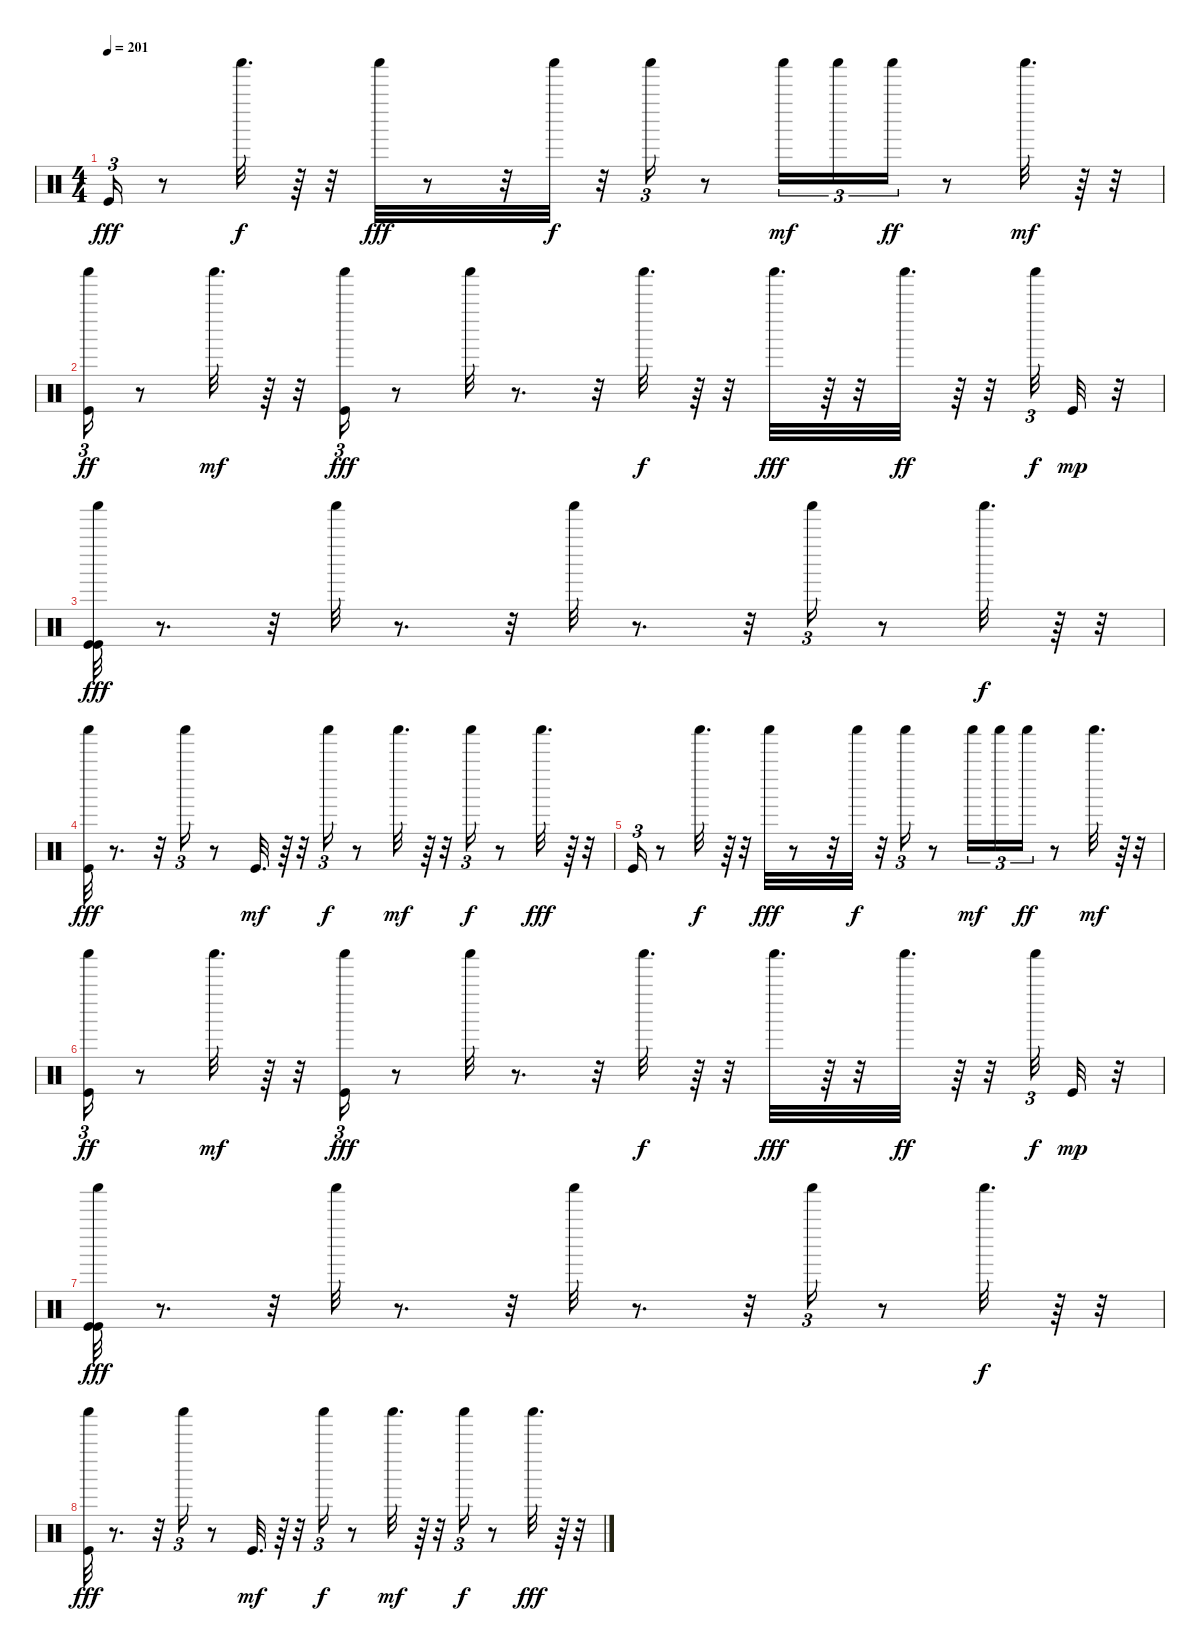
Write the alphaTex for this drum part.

\track "" {instrument percussion}
\staff {score}
\articulation defaults
\ts (4 4)
\tempo 201
\clef neutral
\ks c "Kick (hit)".16{tu (3 2) dy fff}
r.8 "Shaker (hit)".32{d dy f} r.64 r.32 "Shaker (hit)".32{dy fff} r.8 r.32 "Shaker (hit)".32{dy f} r.32 "Shaker (hit)".16{tu (3 2)} r.8 "Shaker (hit)".16{tu (3 2) dy mf} "Shaker (hit)".16{tu (3 2)} "Shaker (hit)".16{tu (3 2) dy ff} r.8 "Shaker (hit)".32{d dy mf} r.64 r.32 |
("Shaker (hit)" "Kick (hit)").16{tu (3 2) dy ff} r.8 "Shaker (hit)".32{d dy mf} r.64 r.32 ("Shaker (hit)" "Kick (hit)").16{tu (3 2) dy fff} r.8 "Shaker (hit)".32 r.8{d} r.32 "Shaker (hit)".32{d dy f} r.64 r.32 "Shaker (hit)".32{d dy fff} r.64 r.32 "Shaker (hit)".32{d dy ff} r.64 r.32 "Shaker (hit)".32{tu (3 2) dy f} "Kick (hit)".32{dy mp} r.32 |
("Shaker (hit)" "Kick (hit)" "Kick (hit)").32{dy fff} r.8{d} r.32 "Shaker (hit)".32 r.8{d} r.32 "Shaker (hit)".32 r.8{d} r.32 "Shaker (hit)".16{tu (3 2)} r.8 "Shaker (hit)".32{d dy f} r.64 r.32 |
("Shaker (hit)" "Kick (hit)").32{dy fff} r.8{d} r.32 "Shaker (hit)".16{tu (3 2)} r.8 "Kick (hit)".32{d dy mf} r.64 r.32 "Shaker (hit)".16{tu (3 2) dy f} r.8 "Shaker (hit)".32{d dy mf} r.64 r.32 "Shaker (hit)".16{tu (3 2) dy f} r.8 "Shaker (hit)".32{d dy fff} r.64 r.32 |
"Kick (hit)".16{tu (3 2)} r.8 "Shaker (hit)".32{d dy f} r.64 r.32 "Shaker (hit)".32{dy fff} r.8 r.32 "Shaker (hit)".32{dy f} r.32 "Shaker (hit)".16{tu (3 2)} r.8 "Shaker (hit)".16{tu (3 2) dy mf} "Shaker (hit)".16{tu (3 2)} "Shaker (hit)".16{tu (3 2) dy ff} r.8 "Shaker (hit)".32{d dy mf} r.64 r.32 |
("Shaker (hit)" "Kick (hit)").16{tu (3 2) dy ff} r.8 "Shaker (hit)".32{d dy mf} r.64 r.32 ("Shaker (hit)" "Kick (hit)").16{tu (3 2) dy fff} r.8 "Shaker (hit)".32 r.8{d} r.32 "Shaker (hit)".32{d dy f} r.64 r.32 "Shaker (hit)".32{d dy fff} r.64 r.32 "Shaker (hit)".32{d dy ff} r.64 r.32 "Shaker (hit)".32{tu (3 2) dy f} "Kick (hit)".32{dy mp} r.32 |
("Shaker (hit)" "Kick (hit)" "Kick (hit)").32{dy fff} r.8{d} r.32 "Shaker (hit)".32 r.8{d} r.32 "Shaker (hit)".32 r.8{d} r.32 "Shaker (hit)".16{tu (3 2)} r.8 "Shaker (hit)".32{d dy f} r.64 r.32 |
("Shaker (hit)" "Kick (hit)").32{dy fff} r.8{d} r.32 "Shaker (hit)".16{tu (3 2)} r.8 "Kick (hit)".32{d dy mf} r.64 r.32 "Shaker (hit)".16{tu (3 2) dy f} r.8 "Shaker (hit)".32{d dy mf} r.64 r.32 "Shaker (hit)".16{tu (3 2) dy f} r.8 "Shaker (hit)".32{d dy fff} r.64 r.32
